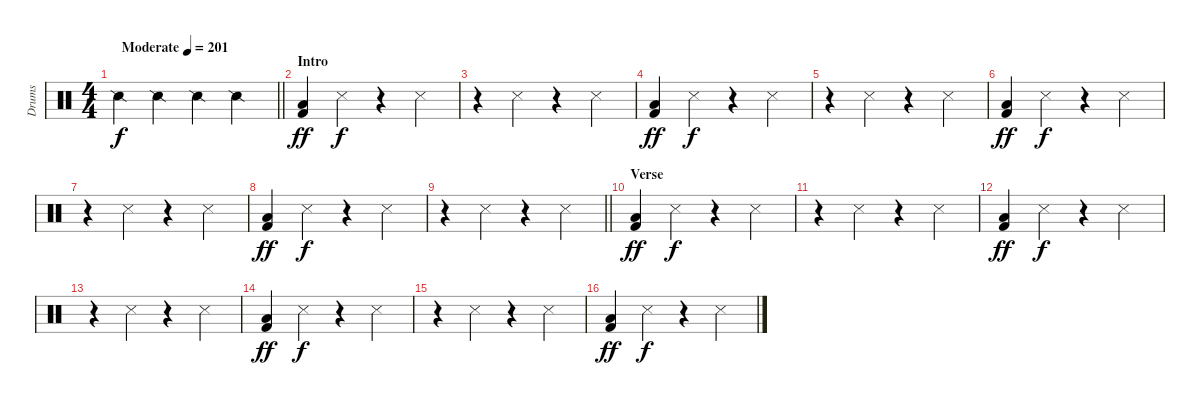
\track ("Drums" "Drums") {instrument percussion}
\staff {score}
\articulation defaults
\ts (4 4)
\tempo (201 "Moderate")
\clef neutral
\barLineRight lightlight
\ks c "Snare (side stick) 2".4{dy f} "Snare (side stick) 2".4 "Snare (side stick) 2".4 "Snare (side stick) 2".4
|
\section ("" "Intro")
("Low Floor Tom (hit)" "Kick (hit) 2").4{dy ff} "Snare (side stick) 3".4{dy f} r.4 "Snare (side stick) 3".4 |
r.4 "Snare (side stick) 3".4 r.4 "Snare (side stick) 3".4 |
("Low Floor Tom (hit)" "Kick (hit) 2").4{dy ff} "Snare (side stick) 3".4{dy f} r.4 "Snare (side stick) 3".4 |
r.4 "Snare (side stick) 3".4 r.4 "Snare (side stick) 3".4 |
("Low Floor Tom (hit)" "Kick (hit) 2").4{dy ff} "Snare (side stick) 3".4{dy f} r.4 "Snare (side stick) 3".4 |
r.4 "Snare (side stick) 3".4 r.4 "Snare (side stick) 3".4 |
("Low Floor Tom (hit)" "Kick (hit) 2").4{dy ff} "Snare (side stick) 3".4{dy f} r.4 "Snare (side stick) 3".4 |
\barLineRight lightlight
r.4 "Snare (side stick) 3".4 r.4 "Snare (side stick) 3".4 |
\section ("" "Verse")
("Low Floor Tom (hit)" "Kick (hit) 2").4{dy ff} "Snare (side stick) 3".4{dy f} r.4 "Snare (side stick) 3".4 |
r.4 "Snare (side stick) 3".4 r.4 "Snare (side stick) 3".4 |
("Low Floor Tom (hit)" "Kick (hit) 2").4{dy ff} "Snare (side stick) 3".4{dy f} r.4 "Snare (side stick) 3".4 |
r.4 "Snare (side stick) 3".4 r.4 "Snare (side stick) 3".4 |
("Low Floor Tom (hit)" "Kick (hit) 2").4{dy ff} "Snare (side stick) 3".4{dy f} r.4 "Snare (side stick) 3".4 |
r.4 "Snare (side stick) 3".4 r.4 "Snare (side stick) 3".4 |
("Low Floor Tom (hit)" "Kick (hit) 2").4{dy ff} "Snare (side stick) 3".4{dy f} r.4 "Snare (side stick) 3".4
